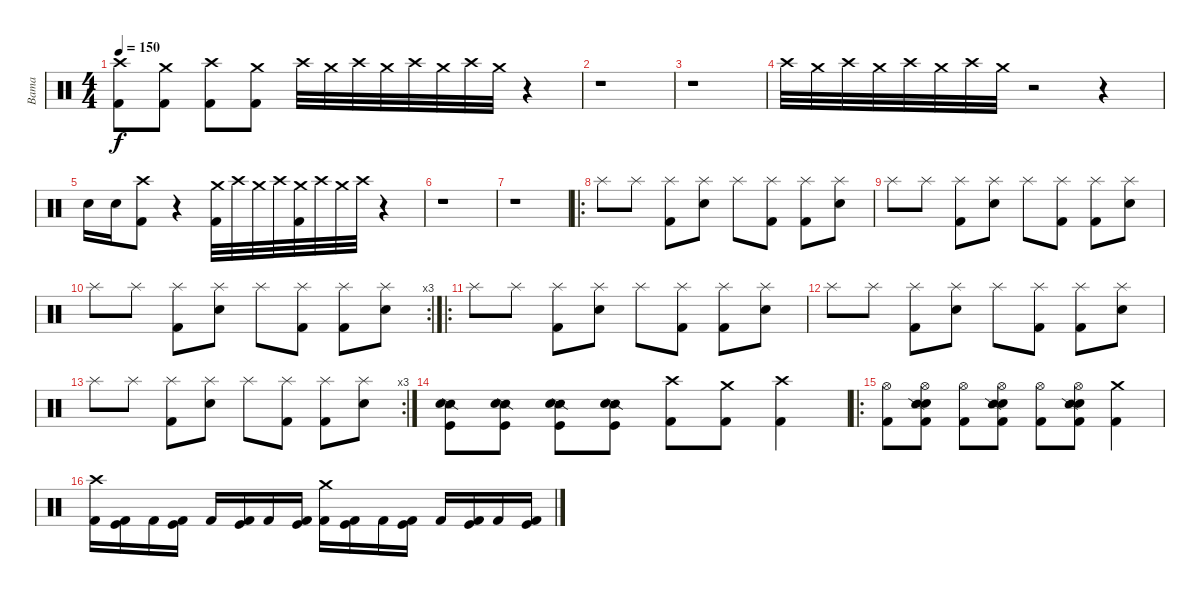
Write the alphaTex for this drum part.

\track ("Bama" "Bama") {instrument percussion}
\staff {score}
\articulation defaults
\ts (4 4)
\tempo 150
\clef neutral
\ks c
("Crash high (hit)" "Kick (hit) 2").8{dy f volume 11} ("Crash medium (hit)" "Kick (hit) 2").8 ("Crash high (hit)" "Kick (hit) 2").8 ("Crash medium (hit)" "Kick (hit) 2").8 "Crash high (hit)".32 "Crash medium (hit)".32 "Crash high (hit)".32 "Crash medium (hit)".32 "Crash high (hit)".32 "Crash medium (hit)".32 "Crash high (hit)".32 "Crash medium (hit)".32 r.4 |
r.1 |
r.1 |
"Crash high (hit)".32 "Crash medium (hit)".32 "Crash high (hit)".32 "Crash medium (hit)".32 "Crash high (hit)".32 "Crash medium (hit)".32 "Crash high (hit)".32 "Crash medium (hit)".32 r.2 r.4 |
"Electric Snare (hit)".16 "Electric Snare (hit)".16 ("Crash high (hit)" "Kick (hit) 2").8 r.4 ("Crash medium (hit)" "Kick (hit) 2").32 "Crash high (hit)".32 "Crash medium (hit)".32 "Crash high (hit)".32 ("Crash medium (hit)" "Kick (hit) 2").32 "Crash high (hit)".32 "Crash medium (hit)".32 "Crash high (hit)".32 r.4 |
r.1 |
r.1 |
\ro "Splash (hit)".8 "Splash (hit)".8
("Splash (hit)" "Kick (hit) 2").8 ("Splash (hit)" "Electric Snare (hit)").8 "Splash (hit)".8 ("Splash (hit)" "Kick (hit) 2").8 ("Splash (hit)" "Kick (hit) 2").8 ("Splash (hit)" "Electric Snare (hit)").8 |
"Splash (hit)".8 "Splash (hit)".8 ("Splash (hit)" "Kick (hit) 2").8 ("Splash (hit)" "Electric Snare (hit)").8 "Splash (hit)".8 ("Splash (hit)" "Kick (hit) 2").8 ("Splash (hit)" "Kick (hit) 2").8 ("Splash (hit)" "Electric Snare (hit)").8 |
\rc 3 "Splash (hit)".8 "Splash (hit)".8
("Splash (hit)" "Kick (hit) 2").8 ("Splash (hit)" "Electric Snare (hit)").8 "Splash (hit)".8 ("Splash (hit)" "Kick (hit) 2").8 ("Splash (hit)" "Kick (hit) 2").8 ("Splash (hit)" "Electric Snare (hit)").8 |
\ro "Splash (hit)".8 "Splash (hit)".8
("Splash (hit)" "Kick (hit) 2").8 ("Splash (hit)" "Electric Snare (hit)").8 "Splash (hit)".8 ("Splash (hit)" "Kick (hit) 2").8 ("Splash (hit)" "Kick (hit) 2").8 ("Splash (hit)" "Electric Snare (hit)").8 |
"Splash (hit)".8 "Splash (hit)".8 ("Splash (hit)" "Kick (hit) 2").8 ("Splash (hit)" "Electric Snare (hit)").8 "Splash (hit)".8 ("Splash (hit)" "Kick (hit) 2").8 ("Splash (hit)" "Kick (hit) 2").8 ("Splash (hit)" "Electric Snare (hit)").8 |
\rc 3 "Splash (hit)".8 "Splash (hit)".8
("Splash (hit)" "Kick (hit) 2").8 ("Splash (hit)" "Electric Snare (hit)").8 "Splash (hit)".8 ("Splash (hit)" "Kick (hit) 2").8 ("Splash (hit)" "Kick (hit) 2").8 ("Splash (hit)" "Electric Snare (hit)").8 |
("Kick (hit)" "Snare (side stick) 2" "Electric Snare (hit)").8{volume 15} ("Kick (hit)" "Snare (side stick) 2" "Electric Snare (hit)").8 ("Kick (hit)" "Snare (side stick) 2" "Electric Snare (hit)").8 ("Kick (hit)" "Snare (side stick) 2" "Electric Snare (hit)").8 ("Crash high (hit)" "Kick (hit) 2").8 ("Crash medium (hit)" "Kick (hit) 2").8 ("Crash high (hit)" "Kick (hit) 2").4 |
\ro
("Hi-Hat (open)" "Kick (hit) 2").8 ("Hi-Hat (open)" "Electric Snare (hit)" "Snare (side stick) 2" "Kick (hit) 2").8 ("Hi-Hat (open)" "Kick (hit) 2").8 ("Hi-Hat (open)" "Electric Snare (hit)" "Snare (side stick) 2" "Kick (hit) 2").8 ("Hi-Hat (open)" "Kick (hit) 2").8 ("Hi-Hat (open)" "Electric Snare (hit)" "Snare (side stick) 2" "Kick (hit) 2").8 ("Crash medium (hit)" "Kick (hit) 2").4 |
("Crash high (hit)" "Kick (hit) 2").16 ("Kick (hit)" "Kick (hit) 2").16 "Kick (hit) 2".16 ("Kick (hit)" "Kick (hit) 2").16 "Kick (hit) 2".16 ("Kick (hit)" "Kick (hit) 2").16 "Kick (hit) 2".16 ("Kick (hit)" "Kick (hit) 2").16 ("Crash medium (hit)" "Kick (hit) 2").16 ("Kick (hit)" "Kick (hit) 2").16 "Kick (hit) 2".16 ("Kick (hit)" "Kick (hit) 2").16 "Kick (hit) 2".16 ("Kick (hit)" "Kick (hit) 2").16 "Kick (hit) 2".16 ("Kick (hit)" "Kick (hit) 2").16
